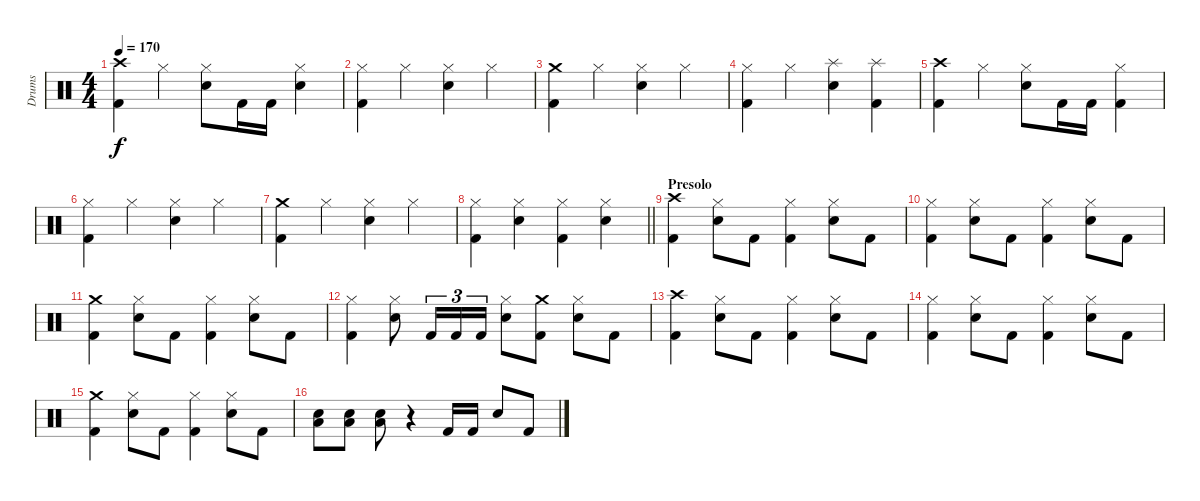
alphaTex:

\track ("Drums" "Drums") {instrument percussion}
\staff {score}
\articulation defaults
\ts (4 4)
\tempo 170
\clef neutral
\ks c
("Kick (hit) 2" "Crash high (hit)").4{dy f} "Hi-Hat (closed)".4 ("Hi-Hat (closed)" "Electric Snare (hit)").8 "Kick (hit) 2".16 "Kick (hit) 2".16 ("Hi-Hat (closed)" "Electric Snare (hit)").4 |
("Kick (hit) 2" "Hi-Hat (closed)").4 "Hi-Hat (closed)".4 ("Hi-Hat (closed)" "Electric Snare (hit)").4 "Hi-Hat (closed)".4 |
("Kick (hit) 2" "Crash medium (hit)").4 "Hi-Hat (closed)".4 ("Hi-Hat (closed)" "Electric Snare (hit)").4 "Hi-Hat (closed)".4 |
("Kick (hit) 2" "Hi-Hat (closed)").4 "Hi-Hat (closed)".4 ("Splash (hit)" "Electric Snare (hit)").4 ("Kick (hit) 2" "Splash (hit)").4 |
("Kick (hit) 2" "Crash high (hit)").4 "Hi-Hat (closed)".4 ("Hi-Hat (closed)" "Electric Snare (hit)").8 "Kick (hit) 2".16 "Kick (hit) 2".16 ("Kick (hit) 2" "Hi-Hat (closed)").4 |
("Kick (hit) 2" "Hi-Hat (closed)").4 "Hi-Hat (closed)".4 ("Hi-Hat (closed)" "Electric Snare (hit)").4 "Hi-Hat (closed)".4 |
("Kick (hit) 2" "Crash medium (hit)").4 "Hi-Hat (closed)".4 ("Hi-Hat (closed)" "Electric Snare (hit)").4 "Hi-Hat (closed)".4 |
\barLineRight lightlight
("Kick (hit) 2" "Hi-Hat (closed)").4 ("Hi-Hat (closed)" "Electric Snare (hit)").4 ("Kick (hit) 2" "Hi-Hat (closed)").4 ("Hi-Hat (closed)" "Electric Snare (hit)").4 |
\section ("" "Presolo")
("Kick (hit) 2" "Crash high (hit)").4 ("Hi-Hat (closed)" "Electric Snare (hit)").8 "Kick (hit) 2".8 ("Kick (hit) 2" "Hi-Hat (closed)").4 ("Hi-Hat (closed)" "Electric Snare (hit)").8 "Kick (hit) 2".8 |
("Kick (hit) 2" "Hi-Hat (closed)").4 ("Hi-Hat (closed)" "Electric Snare (hit)").8 "Kick (hit) 2".8 ("Kick (hit) 2" "Hi-Hat (closed)").4 ("Hi-Hat (closed)" "Electric Snare (hit)").8 "Kick (hit) 2".8 |
("Kick (hit) 2" "Crash medium (hit)").4 ("Hi-Hat (closed)" "Electric Snare (hit)").8 "Kick (hit) 2".8 ("Kick (hit) 2" "Hi-Hat (closed)").4 ("Hi-Hat (closed)" "Electric Snare (hit)").8 "Kick (hit) 2".8 |
("Kick (hit) 2" "Hi-Hat (closed)").4 ("Hi-Hat (closed)" "Electric Snare (hit)").8 "Kick (hit) 2".16{tu (3 2)} "Kick (hit) 2".16{tu (3 2)} "Kick (hit) 2".16{tu (3 2)} ("Hi-Hat (closed)" "Electric Snare (hit)").8 ("Kick (hit) 2" "Crash medium (hit)").8 ("Hi-Hat (closed)" "Electric Snare (hit)").8 "Kick (hit) 2".8 |
("Kick (hit) 2" "Crash high (hit)").4 ("Hi-Hat (closed)" "Electric Snare (hit)").8 "Kick (hit) 2".8 ("Kick (hit) 2" "Hi-Hat (closed)").4 ("Hi-Hat (closed)" "Electric Snare (hit)").8 "Kick (hit) 2".8 |
("Kick (hit) 2" "Hi-Hat (closed)").4 ("Hi-Hat (closed)" "Electric Snare (hit)").8 "Kick (hit) 2".8 ("Kick (hit) 2" "Hi-Hat (closed)").4 ("Hi-Hat (closed)" "Electric Snare (hit)").8 "Kick (hit) 2".8 |
("Kick (hit) 2" "Crash medium (hit)").4 ("Hi-Hat (closed)" "Electric Snare (hit)").8 "Kick (hit) 2".8 ("Kick (hit) 2" "Hi-Hat (closed)").4 ("Hi-Hat (closed)" "Electric Snare (hit)").8 "Kick (hit) 2".8 |
("Low Floor Tom (hit)" "Electric Snare (hit)").8 ("Low Floor Tom (hit)" "Electric Snare (hit)").8 ("Low Floor Tom (hit)" "Electric Snare (hit)").8 r.4 "Kick (hit) 2".16 "Kick (hit) 2".16 "Electric Snare (hit)".8 "Kick (hit) 2".8
